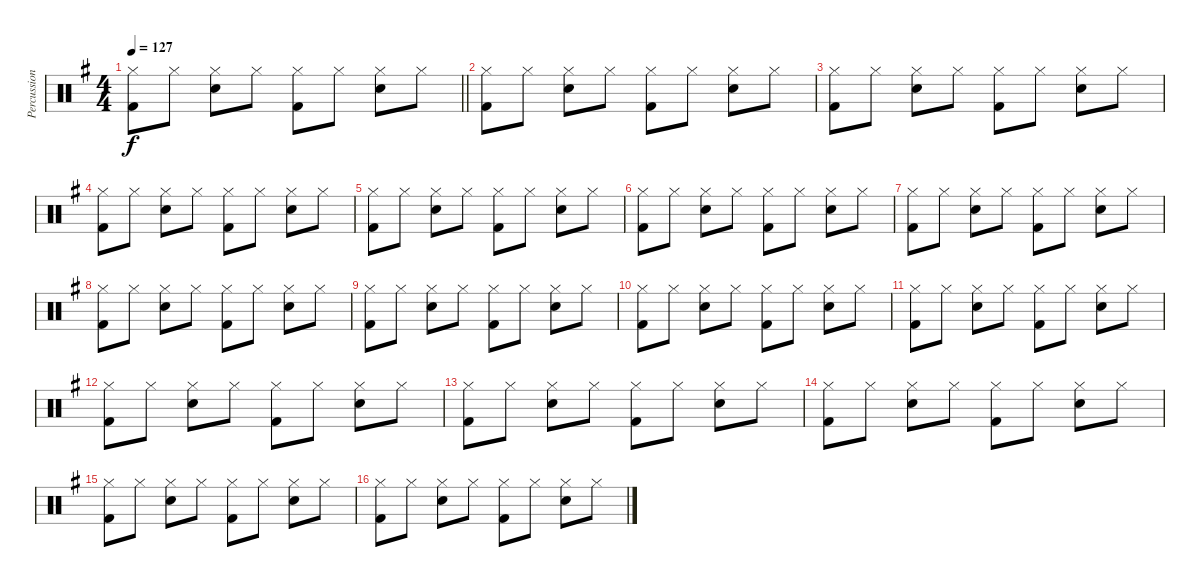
\track ("Percussion" "Percussion") {instrument percussion}
\staff {score}
\articulation defaults
\ts (4 4)
\tempo 127
\clef neutral
\barLineRight lightlight
\ks g
("Hi-Hat (closed)" "Kick (hit) 2").8{dy f} "Hi-Hat (closed)".8 ("Hi-Hat (closed)" "Snare (hit) 2").8 "Hi-Hat (closed)".8 ("Hi-Hat (closed)" "Kick (hit) 2").8 "Hi-Hat (closed)".8 ("Hi-Hat (closed)" "Snare (hit) 2").8 "Hi-Hat (closed)".8 |
("Hi-Hat (closed)" "Kick (hit) 2").8 "Hi-Hat (closed)".8 ("Hi-Hat (closed)" "Snare (hit) 2").8 "Hi-Hat (closed)".8 ("Hi-Hat (closed)" "Kick (hit) 2").8 "Hi-Hat (closed)".8 ("Hi-Hat (closed)" "Snare (hit) 2").8 "Hi-Hat (closed)".8 |
("Hi-Hat (closed)" "Kick (hit) 2").8 "Hi-Hat (closed)".8 ("Hi-Hat (closed)" "Snare (hit) 2").8 "Hi-Hat (closed)".8 ("Hi-Hat (closed)" "Kick (hit) 2").8 "Hi-Hat (closed)".8 ("Hi-Hat (closed)" "Snare (hit) 2").8 "Hi-Hat (closed)".8 |
("Hi-Hat (closed)" "Kick (hit) 2").8 "Hi-Hat (closed)".8 ("Hi-Hat (closed)" "Snare (hit) 2").8 "Hi-Hat (closed)".8 ("Hi-Hat (closed)" "Kick (hit) 2").8 "Hi-Hat (closed)".8 ("Hi-Hat (closed)" "Snare (hit) 2").8 "Hi-Hat (closed)".8 |
("Hi-Hat (closed)" "Kick (hit) 2").8 "Hi-Hat (closed)".8 ("Hi-Hat (closed)" "Snare (hit) 2").8 "Hi-Hat (closed)".8 ("Hi-Hat (closed)" "Kick (hit) 2").8 "Hi-Hat (closed)".8 ("Hi-Hat (closed)" "Snare (hit) 2").8 "Hi-Hat (closed)".8 |
("Hi-Hat (closed)" "Kick (hit) 2").8 "Hi-Hat (closed)".8 ("Hi-Hat (closed)" "Snare (hit) 2").8 "Hi-Hat (closed)".8 ("Hi-Hat (closed)" "Kick (hit) 2").8 "Hi-Hat (closed)".8 ("Hi-Hat (closed)" "Snare (hit) 2").8 "Hi-Hat (closed)".8 |
("Hi-Hat (closed)" "Kick (hit) 2").8 "Hi-Hat (closed)".8 ("Hi-Hat (closed)" "Snare (hit) 2").8 "Hi-Hat (closed)".8 ("Hi-Hat (closed)" "Kick (hit) 2").8 "Hi-Hat (closed)".8 ("Hi-Hat (closed)" "Snare (hit) 2").8 "Hi-Hat (closed)".8 |
("Hi-Hat (closed)" "Kick (hit) 2").8 "Hi-Hat (closed)".8 ("Hi-Hat (closed)" "Snare (hit) 2").8 "Hi-Hat (closed)".8 ("Hi-Hat (closed)" "Kick (hit) 2").8 "Hi-Hat (closed)".8 ("Hi-Hat (closed)" "Snare (hit) 2").8 "Hi-Hat (closed)".8 |
("Hi-Hat (closed)" "Kick (hit) 2").8 "Hi-Hat (closed)".8 ("Hi-Hat (closed)" "Snare (hit) 2").8 "Hi-Hat (closed)".8 ("Hi-Hat (closed)" "Kick (hit) 2").8 "Hi-Hat (closed)".8 ("Hi-Hat (closed)" "Snare (hit) 2").8 "Hi-Hat (closed)".8 |
("Hi-Hat (closed)" "Kick (hit) 2").8 "Hi-Hat (closed)".8 ("Hi-Hat (closed)" "Snare (hit) 2").8 "Hi-Hat (closed)".8 ("Hi-Hat (closed)" "Kick (hit) 2").8 "Hi-Hat (closed)".8 ("Hi-Hat (closed)" "Snare (hit) 2").8 "Hi-Hat (closed)".8 |
("Hi-Hat (closed)" "Kick (hit) 2").8 "Hi-Hat (closed)".8 ("Hi-Hat (closed)" "Snare (hit) 2").8 "Hi-Hat (closed)".8 ("Hi-Hat (closed)" "Kick (hit) 2").8 "Hi-Hat (closed)".8 ("Hi-Hat (closed)" "Snare (hit) 2").8 "Hi-Hat (closed)".8 |
("Hi-Hat (closed)" "Kick (hit) 2").8 "Hi-Hat (closed)".8 ("Hi-Hat (closed)" "Snare (hit) 2").8 "Hi-Hat (closed)".8 ("Hi-Hat (closed)" "Kick (hit) 2").8 "Hi-Hat (closed)".8 ("Hi-Hat (closed)" "Snare (hit) 2").8 "Hi-Hat (closed)".8 |
("Hi-Hat (closed)" "Kick (hit) 2").8 "Hi-Hat (closed)".8 ("Hi-Hat (closed)" "Snare (hit) 2").8 "Hi-Hat (closed)".8 ("Hi-Hat (closed)" "Kick (hit) 2").8 "Hi-Hat (closed)".8 ("Hi-Hat (closed)" "Snare (hit) 2").8 "Hi-Hat (closed)".8 |
("Hi-Hat (closed)" "Kick (hit) 2").8 "Hi-Hat (closed)".8 ("Hi-Hat (closed)" "Snare (hit) 2").8 "Hi-Hat (closed)".8 ("Hi-Hat (closed)" "Kick (hit) 2").8 "Hi-Hat (closed)".8 ("Hi-Hat (closed)" "Snare (hit) 2").8 "Hi-Hat (closed)".8 |
("Hi-Hat (closed)" "Kick (hit) 2").8 "Hi-Hat (closed)".8 ("Hi-Hat (closed)" "Snare (hit) 2").8 "Hi-Hat (closed)".8 ("Hi-Hat (closed)" "Kick (hit) 2").8 "Hi-Hat (closed)".8 ("Hi-Hat (closed)" "Snare (hit) 2").8 "Hi-Hat (closed)".8 |
("Hi-Hat (closed)" "Kick (hit) 2").8 "Hi-Hat (closed)".8 ("Hi-Hat (closed)" "Snare (hit) 2").8 "Hi-Hat (closed)".8 ("Hi-Hat (closed)" "Kick (hit) 2").8 "Hi-Hat (closed)".8 ("Hi-Hat (closed)" "Snare (hit) 2").8 "Hi-Hat (closed)".8
